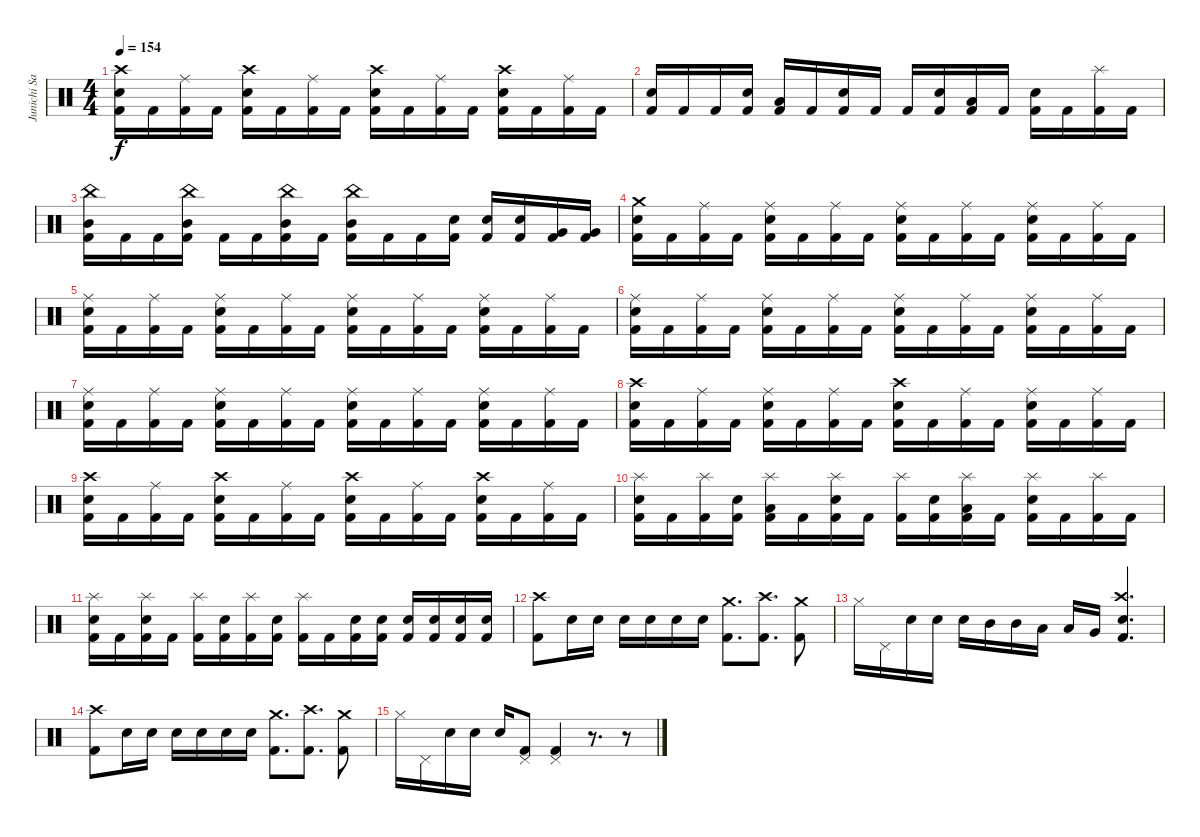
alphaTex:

\track ("Junichi Sato" "Junichi Sa") {instrument percussion}
\staff {score}
\articulation defaults
\ts (4 4)
\tempo 154
\clef neutral
\ks c
("Kick (hit) 2" "Crash high (hit)" "Electric Snare (hit)").16{dy f} "Kick (hit) 2".16 ("Kick (hit) 2" "Ride (middle)").16 "Kick (hit) 2".16 ("Kick (hit) 2" "Crash high (hit)" "Electric Snare (hit)").16 "Kick (hit) 2".16 ("Kick (hit) 2" "Ride (middle)").16 "Kick (hit) 2".16 ("Kick (hit) 2" "Crash high (hit)" "Electric Snare (hit)").16 "Kick (hit) 2".16 ("Kick (hit) 2" "Ride (middle)").16 "Kick (hit) 2".16 ("Kick (hit) 2" "Crash high (hit)" "Electric Snare (hit)").16 "Kick (hit) 2".16 ("Kick (hit) 2" "Ride (middle)").16 "Kick (hit) 2".16 |
("Kick (hit) 2" "Electric Snare (hit)").16 "Kick (hit) 2".16 "Kick (hit) 2".16 ("Kick (hit) 2" "Electric Snare (hit)").16 ("Kick (hit) 2" "Low Tom (hit)").16 "Kick (hit) 2".16 ("Kick (hit) 2" "Electric Snare (hit)").16 "Kick (hit) 2".16 "Kick (hit) 2".16 ("Kick (hit) 2" "Electric Snare (hit)").16 ("Kick (hit) 2" "Low Tom (hit)").16 "Kick (hit) 2".16 ("Kick (hit) 2" "Electric Snare (hit)").16 "Kick (hit) 2".16 ("Kick (hit) 2" "Splash (hit)").16 "Kick (hit) 2".16 |
("Kick (hit) 2" "Mid Tom (hit)" "China (hit)").16 "Kick (hit) 2".16 "Kick (hit) 2".16 ("Kick (hit) 2" "Mid Tom (hit)" "China (hit)").16 "Kick (hit) 2".16 "Kick (hit) 2".16 ("Kick (hit) 2" "Mid Tom (hit)" "China (hit)").16 "Kick (hit) 2".16 ("Kick (hit) 2" "Mid Tom (hit)" "China (hit)").16 "Kick (hit) 2".16 "Kick (hit) 2".16 ("Kick (hit) 2" "Electric Snare (hit)").16 ("Kick (hit) 2" "Electric Snare (hit)").16 ("Kick (hit) 2" "Electric Snare (hit)").16 ("Kick (hit) 2" "Very Low Tom (hit)").16 ("Kick (hit) 2" "Very Low Tom (hit)").16 |
("Kick (hit) 2" "Crash medium (hit)" "Electric Snare (hit)").16 "Kick (hit) 2".16 ("Kick (hit) 2" "Ride (middle)").16 "Kick (hit) 2".16 ("Kick (hit) 2" "Ride (middle)" "Electric Snare (hit)").16 "Kick (hit) 2".16 ("Kick (hit) 2" "Ride (middle)").16 "Kick (hit) 2".16 ("Kick (hit) 2" "Ride (middle)" "Electric Snare (hit)").16 "Kick (hit) 2".16 ("Kick (hit) 2" "Ride (middle)").16 "Kick (hit) 2".16 ("Kick (hit) 2" "Ride (middle)" "Electric Snare (hit)").16 "Kick (hit) 2".16 ("Kick (hit) 2" "Ride (middle)").16 "Kick (hit) 2".16 |
("Kick (hit) 2" "Ride (middle)" "Electric Snare (hit)").16 "Kick (hit) 2".16 ("Kick (hit) 2" "Ride (middle)").16 "Kick (hit) 2".16 ("Kick (hit) 2" "Ride (middle)" "Electric Snare (hit)").16 "Kick (hit) 2".16 ("Kick (hit) 2" "Ride (middle)").16 "Kick (hit) 2".16 ("Kick (hit) 2" "Ride (middle)" "Electric Snare (hit)").16 "Kick (hit) 2".16 ("Kick (hit) 2" "Ride (middle)").16 "Kick (hit) 2".16 ("Kick (hit) 2" "Ride (middle)" "Electric Snare (hit)").16 "Kick (hit) 2".16 ("Kick (hit) 2" "Ride (middle)").16 "Kick (hit) 2".16 |
("Kick (hit) 2" "Ride (middle)" "Electric Snare (hit)").16 "Kick (hit) 2".16 ("Kick (hit) 2" "Ride (middle)").16 "Kick (hit) 2".16 ("Kick (hit) 2" "Ride (middle)" "Electric Snare (hit)").16 "Kick (hit) 2".16 ("Kick (hit) 2" "Ride (middle)").16 "Kick (hit) 2".16 ("Kick (hit) 2" "Ride (middle)" "Electric Snare (hit)").16 "Kick (hit) 2".16 ("Kick (hit) 2" "Ride (middle)").16 "Kick (hit) 2".16 ("Kick (hit) 2" "Ride (middle)" "Electric Snare (hit)").16 "Kick (hit) 2".16 ("Kick (hit) 2" "Ride (middle)").16 "Kick (hit) 2".16 |
("Kick (hit) 2" "Ride (middle)" "Electric Snare (hit)").16 "Kick (hit) 2".16 ("Kick (hit) 2" "Ride (middle)").16 "Kick (hit) 2".16 ("Kick (hit) 2" "Ride (middle)" "Electric Snare (hit)").16 "Kick (hit) 2".16 ("Kick (hit) 2" "Ride (middle)").16 "Kick (hit) 2".16 ("Kick (hit) 2" "Ride (middle)" "Electric Snare (hit)").16 "Kick (hit) 2".16 ("Kick (hit) 2" "Ride (middle)").16 "Kick (hit) 2".16 ("Kick (hit) 2" "Ride (middle)" "Electric Snare (hit)").16 "Kick (hit) 2".16 ("Kick (hit) 2" "Ride (middle)").16 "Kick (hit) 2".16 |
("Kick (hit) 2" "Crash high (hit)" "Electric Snare (hit)").16 "Kick (hit) 2".16 ("Kick (hit) 2" "Ride (middle)").16 "Kick (hit) 2".16 ("Kick (hit) 2" "Ride (middle)" "Electric Snare (hit)").16 "Kick (hit) 2".16 ("Kick (hit) 2" "Ride (middle)").16 "Kick (hit) 2".16 ("Kick (hit) 2" "Crash high (hit)" "Electric Snare (hit)").16 "Kick (hit) 2".16 ("Kick (hit) 2" "Ride (middle)").16 "Kick (hit) 2".16 ("Kick (hit) 2" "Ride (middle)" "Electric Snare (hit)").16 "Kick (hit) 2".16 ("Kick (hit) 2" "Ride (middle)").16 "Kick (hit) 2".16 |
("Kick (hit) 2" "Crash high (hit)" "Electric Snare (hit)").16 "Kick (hit) 2".16 ("Kick (hit) 2" "Ride (middle)").16 "Kick (hit) 2".16 ("Kick (hit) 2" "Crash high (hit)" "Electric Snare (hit)").16 "Kick (hit) 2".16 ("Kick (hit) 2" "Ride (middle)").16 "Kick (hit) 2".16 ("Kick (hit) 2" "Crash high (hit)" "Electric Snare (hit)").16 "Kick (hit) 2".16 ("Kick (hit) 2" "Ride (middle)").16 "Kick (hit) 2".16 ("Kick (hit) 2" "Crash high (hit)" "Electric Snare (hit)").16 "Kick (hit) 2".16 ("Kick (hit) 2" "Ride (middle)").16 "Kick (hit) 2".16 |
("Kick (hit) 2" "Electric Snare (hit)" "Splash (hit)").16 "Kick (hit) 2".16 ("Kick (hit) 2" "Splash (hit)").16 ("Kick (hit) 2" "Electric Snare (hit)").16 ("Kick (hit) 2" "Low Tom (hit)" "Splash (hit)").16 "Kick (hit) 2".16 ("Kick (hit) 2" "Electric Snare (hit)" "Splash (hit)").16 "Kick (hit) 2".16 ("Kick (hit) 2" "Splash (hit)").16 ("Kick (hit) 2" "Electric Snare (hit)").16 ("Kick (hit) 2" "Low Tom (hit)" "Splash (hit)").16 "Kick (hit) 2".16 ("Kick (hit) 2" "Electric Snare (hit)" "Splash (hit)").16 "Kick (hit) 2".16 ("Kick (hit) 2" "Splash (hit)").16 "Kick (hit) 2".16 |
("Kick (hit) 2" "Electric Snare (hit)" "Splash (hit)").16 "Kick (hit) 2".16 ("Kick (hit) 2" "Electric Snare (hit)" "Splash (hit)").16 "Kick (hit) 2".16 ("Kick (hit) 2" "Splash (hit)").16 ("Kick (hit) 2" "Electric Snare (hit)").16 ("Kick (hit) 2" "Splash (hit)").16 ("Kick (hit) 2" "Electric Snare (hit)").16 ("Kick (hit) 2" "Splash (hit)").16 "Kick (hit) 2".16 ("Kick (hit) 2" "Electric Snare (hit)").16 ("Kick (hit) 2" "Electric Snare (hit)").16 ("Kick (hit) 2" "Electric Snare (hit)").16 ("Kick (hit) 2" "Electric Snare (hit)").16 ("Kick (hit) 2" "Electric Snare (hit)").16 ("Kick (hit) 2" "Electric Snare (hit)").16 |
("Crash high (hit)" "Kick (hit) 2").8 "Electric Snare (hit)".16 "Electric Snare (hit)".16 "Electric Snare (hit)".16 "Electric Snare (hit)".16 "Electric Snare (hit)".16 "Electric Snare (hit)".16 ("Kick (hit) 2" "Crash medium (hit)").8{d} ("Kick (hit) 2" "Crash high (hit)").8{d} ("Kick (hit) 2" "Crash medium (hit)").8 |
"Hi-Hat (closed)".16 "Pedal Hi-Hat (hit)".16 "Electric Snare (hit)".16 "Electric Snare (hit)".16 "Electric Snare (hit)".16 "Mid Tom (hit)".16 "Mid Tom (hit)".16 "Low Tom (hit)".16 "Low Tom (hit)".16 "Very Low Tom (hit)".16 ("Crash high (hit)" "Electric Snare (hit)" "Kick (hit) 2").4{d} |
("Crash high (hit)" "Kick (hit) 2").8 "Electric Snare (hit)".16 "Electric Snare (hit)".16 "Electric Snare (hit)".16 "Electric Snare (hit)".16 "Electric Snare (hit)".16 "Electric Snare (hit)".16 ("Kick (hit) 2" "Crash medium (hit)").8{d} ("Kick (hit) 2" "Crash high (hit)").8{d} ("Kick (hit) 2" "Crash medium (hit)").8 |
"Hi-Hat (closed)".16 "Pedal Hi-Hat (hit)".16 "Electric Snare (hit)".16 "Electric Snare (hit)".16 "Electric Snare (hit)".16 ("Kick (hit) 2" "Pedal Hi-Hat (hit)").8 ("Kick (hit) 2" "Pedal Hi-Hat (hit)").4 r.8{d} r.8
